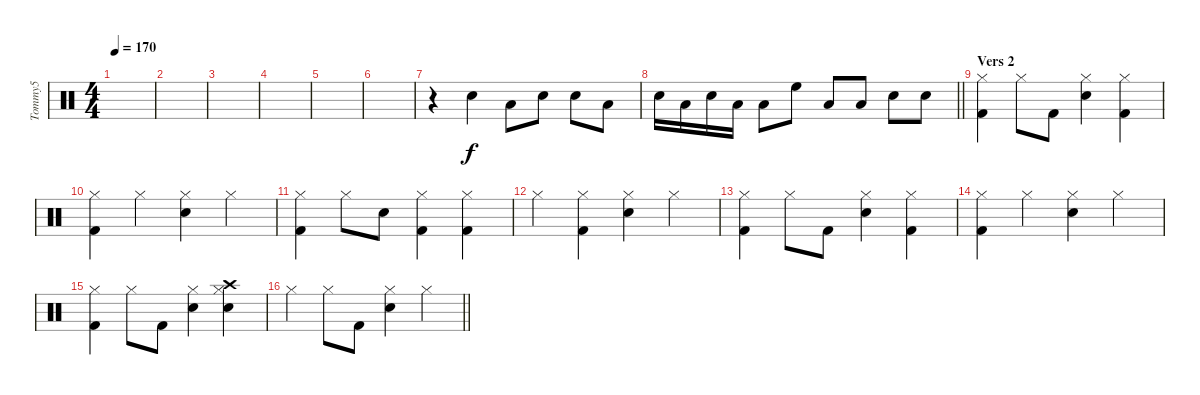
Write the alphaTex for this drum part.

\track ("Tommy5" "Tommy5") {instrument percussion}
\staff {score}
\articulation defaults
\ts (4 4)
\tempo 170
\clef neutral
\ks c
|
|
|
|
|
|
r.4 "Electric Snare (hit)".4 "Low Tom (hit)".8 "Electric Snare (hit)".8 "Electric Snare (hit)".8 "Low Tom (hit)".8 |
\barLineRight lightlight "Electric Snare (hit)".16 "Low Tom (hit)".16 "Electric Snare (hit)".16 "Low Tom (hit)".16 "Low Tom (hit)".8 "High Floor Tom (hit)".8 "Low Tom (hit)".8 "Low Tom (hit)".8 "Electric Snare (hit)".8 "Electric Snare (hit)".8
|
\section ("" "Vers 2")
("Hi-Hat (closed)" "Kick (hit) 2").4 "Hi-Hat (closed)".8 "Kick (hit) 2".8 ("Hi-Hat (closed)" "Electric Snare (hit)").4 ("Hi-Hat (closed)" "Kick (hit) 2").4 |
("Hi-Hat (closed)" "Kick (hit) 2").4 "Hi-Hat (closed)".4 ("Hi-Hat (closed)" "Electric Snare (hit)").4 "Hi-Hat (closed)".4 |
("Hi-Hat (closed)" "Kick (hit) 2").4 "Hi-Hat (closed)".8 "Electric Snare (hit)".8 ("Hi-Hat (closed)" "Kick (hit) 2").4 ("Hi-Hat (closed)" "Kick (hit) 2").4 |
"Hi-Hat (closed)".4 ("Hi-Hat (closed)" "Kick (hit) 2").4 ("Hi-Hat (closed)" "Electric Snare (hit)").4 "Hi-Hat (closed)".4 |
("Hi-Hat (closed)" "Kick (hit) 2").4 "Hi-Hat (closed)".8 "Kick (hit) 2".8 ("Hi-Hat (closed)" "Electric Snare (hit)").4 ("Hi-Hat (closed)" "Kick (hit) 2").4 |
("Hi-Hat (closed)" "Kick (hit) 2").4 "Hi-Hat (closed)".4 ("Hi-Hat (closed)" "Electric Snare (hit)").4 "Hi-Hat (closed)".4 |
("Hi-Hat (closed)" "Kick (hit) 2").4 "Hi-Hat (closed)".8 "Kick (hit) 2".8 ("Hi-Hat (closed)" "Electric Snare (hit)").4 ("Hi-Hat (closed)" "Electric Snare (hit)" "Crash high (hit)").4 |
\barLineRight lightlight "Hi-Hat (closed)".4 "Hi-Hat (closed)".8 "Kick (hit) 2".8
("Hi-Hat (closed)" "Electric Snare (hit)").4 "Hi-Hat (closed)".4
